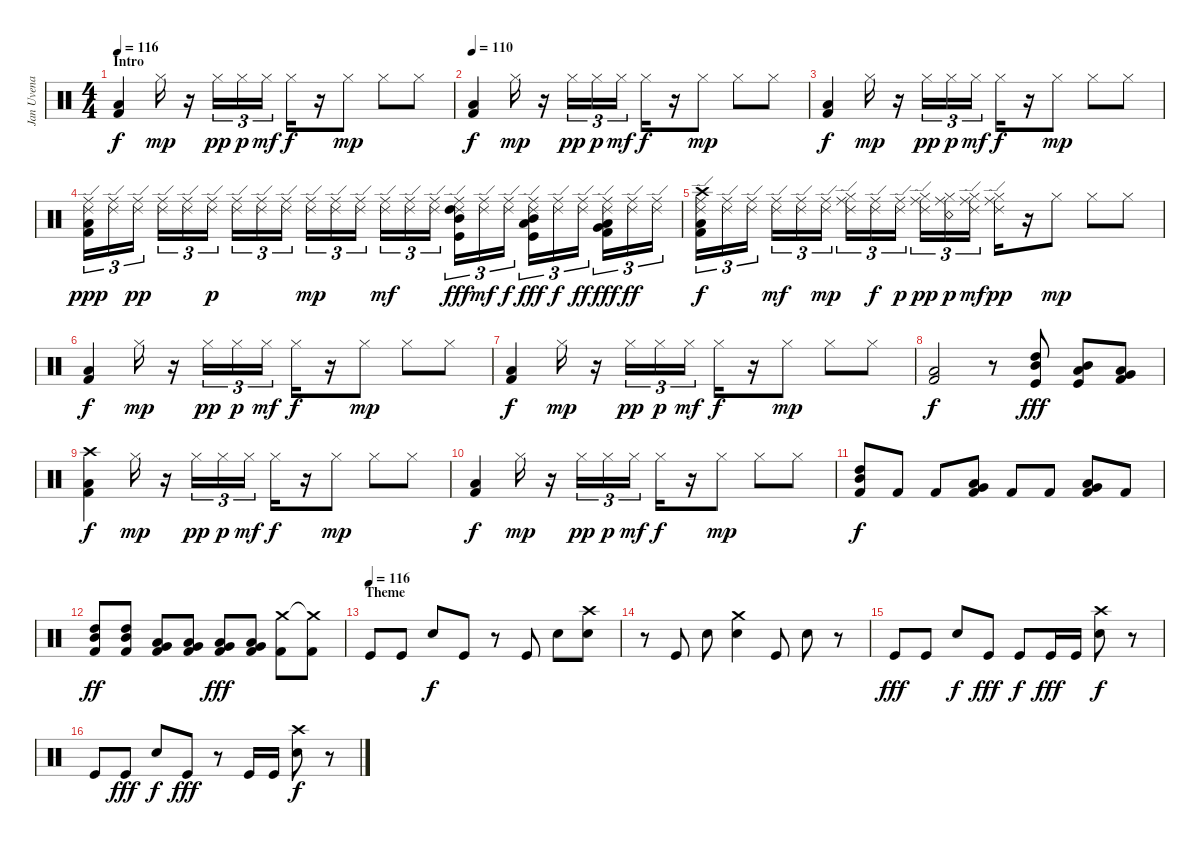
\track ("Jan Uvena" "Jan Uvena") {instrument percussion}
\staff {score}
\articulation defaults
\ts (4 4)
\section ("" "Intro")
\tempo 116
\tempo 110
\tempo 116
\clef neutral
\ks c
("Kick (hit) 2" "Low Floor Tom (hit)").4{dy f} "Hi-Hat (closed)".16{dy mp} r.16 "Hi-Hat (closed)".16{tu (3 2) dy pp} "Hi-Hat (closed)".16{tu (3 2) dy p} "Hi-Hat (closed)".16{tu (3 2) dy mf} "Hi-Hat (closed)".16{dy f} r.16 "Hi-Hat (closed)".8{dy mp} "Hi-Hat (closed)".8 "Hi-Hat (closed)".8 |
\tempo 110
("Kick (hit) 2" "Low Floor Tom (hit)").4{dy f} "Hi-Hat (closed)".16{dy mp} r.16 "Hi-Hat (closed)".16{tu (3 2) dy pp} "Hi-Hat (closed)".16{tu (3 2) dy p} "Hi-Hat (closed)".16{tu (3 2) dy mf} "Hi-Hat (closed)".16{dy f} r.16 "Hi-Hat (closed)".8{dy mp} "Hi-Hat (closed)".8 "Hi-Hat (closed)".8 |
("Kick (hit) 2" "Low Floor Tom (hit)").4{dy f} "Hi-Hat (closed)".16{dy mp} r.16 "Hi-Hat (closed)".16{tu (3 2) dy pp} "Hi-Hat (closed)".16{tu (3 2) dy p} "Hi-Hat (closed)".16{tu (3 2) dy mf} "Hi-Hat (closed)".16{dy f} r.16 "Hi-Hat (closed)".8{dy mp} "Hi-Hat (closed)".8 "Hi-Hat (closed)".8 |
("Ride (middle)" "Ride (edge) 2" "Kick (hit) 2" "Low Floor Tom (hit)").16{tu (3 2) dy ppp} ("Ride (middle)" "Ride (edge) 2").16{tu (3 2)} ("Ride (middle)" "Ride (edge) 2").16{tu (3 2) dy pp} ("Ride (middle)" "Ride (edge) 2").16{tu (3 2)} ("Ride (middle)" "Ride (edge) 2").16{tu (3 2)} ("Ride (middle)" "Ride (edge) 2").16{tu (3 2) dy p} ("Ride (middle)" "Ride (edge) 2").16{tu (3 2)} ("Ride (middle)" "Ride (edge) 2").16{tu (3 2)} ("Ride (middle)" "Ride (edge) 2").16{tu (3 2)} ("Ride (middle)" "Ride (edge) 2").16{tu (3 2) dy mp} ("Ride (middle)" "Ride (edge) 2").16{tu (3 2)} ("Ride (middle)" "Ride (edge) 2").16{tu (3 2)} ("Ride (middle)" "Ride (edge) 2").16{tu (3 2) dy mf} ("Ride (middle)" "Ride (edge) 2").16{tu (3 2)} ("Ride (middle)" "Ride (edge) 2").16{tu (3 2)} ("Ride (middle)" "Ride (edge) 2" "High Tom (hit)" "Mid Tom (hit)" "Kick (hit)").16{tu (3 2) dy fff} ("Ride (middle)" "Ride (edge) 2").16{tu (3 2) dy mf} ("Ride (middle)" "Ride (edge) 2").16{tu (3 2) dy f} ("Ride (middle)" "Ride (edge) 2" "Mid Tom (hit)" "Low Tom (hit)" "Kick (hit)").16{tu (3 2) dy fff} ("Ride (middle)" "Ride (edge) 2").16{tu (3 2) dy f} ("Ride (middle)" "Ride (edge) 2").16{tu (3 2) dy ff} ("Ride (middle)" "Ride (edge) 2" "Low Tom (hit)" "Very Low Tom (hit)" "Kick (hit) 2").16{tu (3 2) dy fff} ("Ride (middle)" "Ride (edge) 2").16{tu (3 2) dy ff} ("Ride (middle)" "Ride (edge) 2").16{tu (3 2)} |
("Crash high (hit)" "Ride (middle)" "Ride (edge) 2" "Kick (hit) 2" "Low Floor Tom (hit)").16{tu (3 2) dy f} ("Ride (middle)" "Ride (edge) 2").16{tu (3 2)} ("Ride (middle)" "Ride (edge) 2").16{tu (3 2)} ("Ride (middle)" "Ride (edge) 2").16{tu (3 2) dy mf} ("Ride (middle)" "Ride (edge) 2").16{tu (3 2)} ("Ride (middle)" "Ride (edge) 2").16{tu (3 2) dy mp} ("Ride (middle)" "Ride (edge) 2" "Hi-Hat (closed)").16{tu (3 2)} ("Ride (middle)" "Ride (edge) 2").16{tu (3 2) dy f} ("Ride (middle)" "Ride (edge) 2").16{tu (3 2) dy p} ("Ride (middle)" "Ride (edge) 2" "Hi-Hat (closed)").16{tu (3 2) dy pp} ("Ride (middle)" "Snare (rim shot)" "Hi-Hat (closed)").16{tu (3 2) dy p} ("Ride (middle)" "Ride (edge) 2" "Hi-Hat (closed)").16{tu (3 2) dy mf} ("Ride (middle)" "Ride (edge) 2" "Hi-Hat (closed)").16{dy pp} r.16 "Hi-Hat (closed)".8{dy mp} "Hi-Hat (closed)".8 "Hi-Hat (closed)".8 |
("Kick (hit) 2" "Low Floor Tom (hit)").4{dy f} "Hi-Hat (closed)".16{dy mp} r.16 "Hi-Hat (closed)".16{tu (3 2) dy pp} "Hi-Hat (closed)".16{tu (3 2) dy p} "Hi-Hat (closed)".16{tu (3 2) dy mf} "Hi-Hat (closed)".16{dy f} r.16 "Hi-Hat (closed)".8{dy mp} "Hi-Hat (closed)".8 "Hi-Hat (closed)".8 |
("Kick (hit) 2" "Low Floor Tom (hit)").4{dy f} "Hi-Hat (closed)".16{dy mp} r.16 "Hi-Hat (closed)".16{tu (3 2) dy pp} "Hi-Hat (closed)".16{tu (3 2) dy p} "Hi-Hat (closed)".16{tu (3 2) dy mf} "Hi-Hat (closed)".16{dy f} r.16 "Hi-Hat (closed)".8{dy mp} "Hi-Hat (closed)".8 "Hi-Hat (closed)".8 |
("Kick (hit) 2" "Low Floor Tom (hit)").2{dy f} r.8 ("High Tom (hit)" "Mid Tom (hit)" "Kick (hit)").8{dy fff} ("Mid Tom (hit)" "Low Tom (hit)" "Kick (hit)").8 ("Low Tom (hit)" "Very Low Tom (hit)" "Kick (hit) 2").8 |
("Crash high (hit)" "Kick (hit) 2" "Low Floor Tom (hit)").4{dy f} "Hi-Hat (closed)".16{dy mp} r.16 "Hi-Hat (closed)".16{tu (3 2) dy pp} "Hi-Hat (closed)".16{tu (3 2) dy p} "Hi-Hat (closed)".16{tu (3 2) dy mf} "Hi-Hat (closed)".16{dy f} r.16 "Hi-Hat (closed)".8{dy mp} "Hi-Hat (closed)".8 "Hi-Hat (closed)".8 |
("Kick (hit) 2" "Low Floor Tom (hit)").4{dy f} "Hi-Hat (closed)".16{dy mp} r.16 "Hi-Hat (closed)".16{tu (3 2) dy pp} "Hi-Hat (closed)".16{tu (3 2) dy p} "Hi-Hat (closed)".16{tu (3 2) dy mf} "Hi-Hat (closed)".16{dy f} r.16 "Hi-Hat (closed)".8{dy mp} "Hi-Hat (closed)".8 "Hi-Hat (closed)".8 |
("High Tom (hit)" "Mid Tom (hit)" "Kick (hit) 2").8{dy f volume 14} "Kick (hit) 2".8 "Kick (hit) 2".8 ("Low Tom (hit)" "Very Low Tom (hit)" "Kick (hit) 2").8 "Kick (hit) 2".8 "Kick (hit) 2".8 ("Very Low Tom (hit)" "Low Floor Tom (hit)" "Kick (hit) 2").8 "Kick (hit) 2".8 |
("High Tom (hit)" "Mid Tom (hit)" "Kick (hit) 2").8{dy ff} ("High Tom (hit)" "Mid Tom (hit)" "Kick (hit) 2").8 ("Low Tom (hit)" "Very Low Tom (hit)" "Kick (hit) 2").8 ("Low Tom (hit)" "Very Low Tom (hit)" "Kick (hit) 2").8 ("Very Low Tom (hit)" "Low Floor Tom (hit)" "Kick (hit) 2").8{dy fff} ("Very Low Tom (hit)" "Low Floor Tom (hit)" "Kick (hit) 2").8 ("Crash medium (hit)" "Kick (hit) 2").8 ("Crash medium (hit)"{t} "Kick (hit) 2").8 |
\section ("" "Theme")
\tempo (116)
"Kick (hit)".8 "Kick (hit)".8 "Snare (hit) 2".8{dy f} "Kick (hit)".8 r.8 "Kick (hit)".8 "Snare (hit) 2".8 ("Crash high (hit)" "Snare (hit) 2").8 |
r.8 "Kick (hit)".8 "Snare (hit) 2".8 ("Crash medium (hit)" "Snare (hit) 2").4 "Kick (hit)".8 "Snare (hit) 2".8 r.8 |
"Kick (hit)".8{dy fff} "Kick (hit)".8 "Snare (hit) 2".8{dy f} "Kick (hit)".8{dy fff} "Kick (hit)".8{dy f} "Kick (hit)".16{dy fff} "Kick (hit)".16 ("Crash high (hit)" "Snare (hit) 2").8{dy f} r.8 |
"Kick (hit)".8 "Kick (hit)".8{dy fff} "Snare (hit) 2".8{dy f} "Kick (hit)".8{dy fff} r.8 "Kick (hit)".16 "Kick (hit)".16 ("Crash high (hit)" "Snare (hit) 2").8{dy f} r.8
